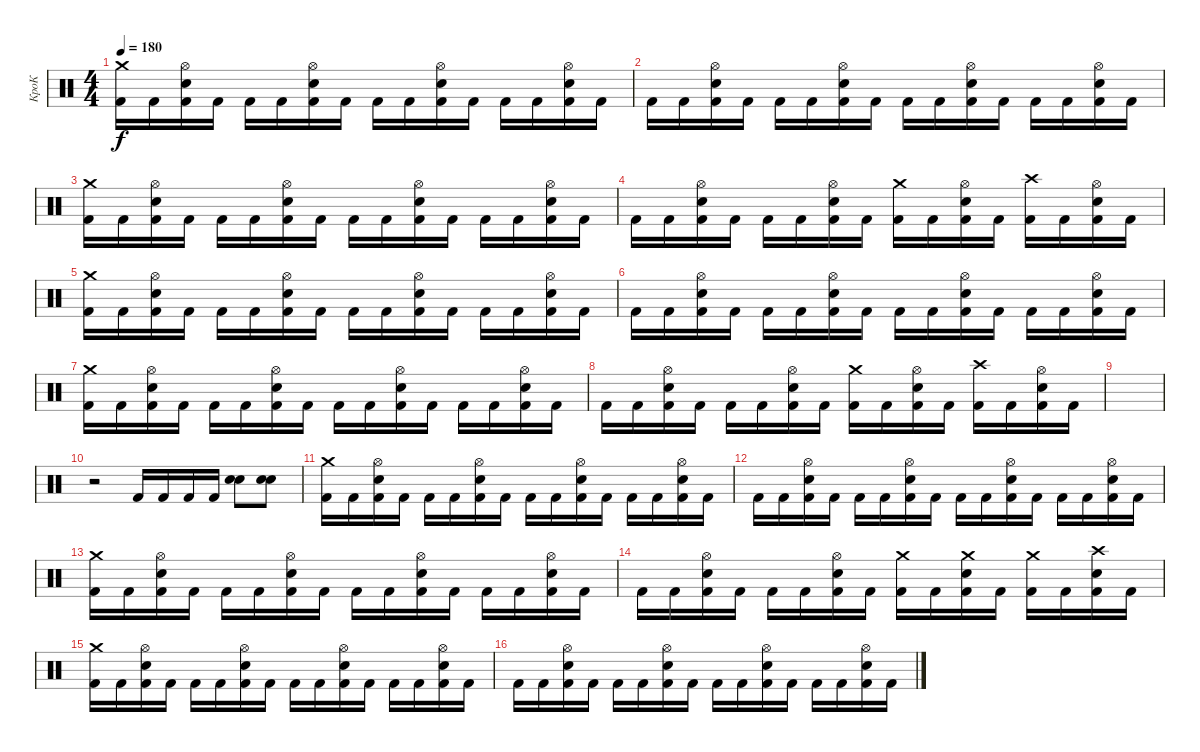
\track ("КроК" "КроК") {instrument percussion}
\staff {score}
\articulation defaults
\ts (4 4)
\tempo 180
\clef neutral
\ks c
("Kick (hit) 2" "Crash medium (hit)").16{dy f} "Kick (hit) 2".16 ("Kick (hit) 2" "Electric Snare (hit)" "Hi-Hat (open)").16 "Kick (hit) 2".16 "Kick (hit) 2".16 "Kick (hit) 2".16 ("Kick (hit) 2" "Electric Snare (hit)" "Hi-Hat (open)").16 "Kick (hit) 2".16 "Kick (hit) 2".16 "Kick (hit) 2".16 ("Kick (hit) 2" "Electric Snare (hit)" "Hi-Hat (open)").16 "Kick (hit) 2".16 "Kick (hit) 2".16 "Kick (hit) 2".16 ("Kick (hit) 2" "Electric Snare (hit)" "Hi-Hat (open)").16 "Kick (hit) 2".16 |
"Kick (hit) 2".16 "Kick (hit) 2".16 ("Kick (hit) 2" "Electric Snare (hit)" "Hi-Hat (open)").16 "Kick (hit) 2".16 "Kick (hit) 2".16 "Kick (hit) 2".16 ("Kick (hit) 2" "Electric Snare (hit)" "Hi-Hat (open)").16 "Kick (hit) 2".16 "Kick (hit) 2".16 "Kick (hit) 2".16 ("Kick (hit) 2" "Electric Snare (hit)" "Hi-Hat (open)").16 "Kick (hit) 2".16 "Kick (hit) 2".16 "Kick (hit) 2".16 ("Kick (hit) 2" "Electric Snare (hit)" "Hi-Hat (open)").16 "Kick (hit) 2".16 |
("Kick (hit) 2" "Crash medium (hit)").16 "Kick (hit) 2".16 ("Kick (hit) 2" "Electric Snare (hit)" "Hi-Hat (open)").16 "Kick (hit) 2".16 "Kick (hit) 2".16 "Kick (hit) 2".16 ("Kick (hit) 2" "Electric Snare (hit)" "Hi-Hat (open)").16 "Kick (hit) 2".16 "Kick (hit) 2".16 "Kick (hit) 2".16 ("Kick (hit) 2" "Electric Snare (hit)" "Hi-Hat (open)").16 "Kick (hit) 2".16 "Kick (hit) 2".16 "Kick (hit) 2".16 ("Kick (hit) 2" "Electric Snare (hit)" "Hi-Hat (open)").16 "Kick (hit) 2".16 |
"Kick (hit) 2".16 "Kick (hit) 2".16 ("Kick (hit) 2" "Electric Snare (hit)" "Hi-Hat (open)").16 "Kick (hit) 2".16 "Kick (hit) 2".16 "Kick (hit) 2".16 ("Kick (hit) 2" "Electric Snare (hit)" "Hi-Hat (open)").16 "Kick (hit) 2".16 ("Kick (hit) 2" "Crash medium (hit)").16 "Kick (hit) 2".16 ("Kick (hit) 2" "Electric Snare (hit)" "Hi-Hat (open)").16 "Kick (hit) 2".16 ("Kick (hit) 2" "Crash high (hit)").16 "Kick (hit) 2".16 ("Kick (hit) 2" "Electric Snare (hit)" "Hi-Hat (open)").16 "Kick (hit) 2".16 |
("Kick (hit) 2" "Crash medium (hit)").16 "Kick (hit) 2".16 ("Kick (hit) 2" "Electric Snare (hit)" "Hi-Hat (open)").16 "Kick (hit) 2".16 "Kick (hit) 2".16 "Kick (hit) 2".16 ("Kick (hit) 2" "Electric Snare (hit)" "Hi-Hat (open)").16 "Kick (hit) 2".16 "Kick (hit) 2".16 "Kick (hit) 2".16 ("Kick (hit) 2" "Electric Snare (hit)" "Hi-Hat (open)").16 "Kick (hit) 2".16 "Kick (hit) 2".16 "Kick (hit) 2".16 ("Kick (hit) 2" "Electric Snare (hit)" "Hi-Hat (open)").16 "Kick (hit) 2".16 |
"Kick (hit) 2".16 "Kick (hit) 2".16 ("Kick (hit) 2" "Electric Snare (hit)" "Hi-Hat (open)").16 "Kick (hit) 2".16 "Kick (hit) 2".16 "Kick (hit) 2".16 ("Kick (hit) 2" "Electric Snare (hit)" "Hi-Hat (open)").16 "Kick (hit) 2".16 "Kick (hit) 2".16 "Kick (hit) 2".16 ("Kick (hit) 2" "Electric Snare (hit)" "Hi-Hat (open)").16 "Kick (hit) 2".16 "Kick (hit) 2".16 "Kick (hit) 2".16 ("Kick (hit) 2" "Electric Snare (hit)" "Hi-Hat (open)").16 "Kick (hit) 2".16 |
("Kick (hit) 2" "Crash medium (hit)").16 "Kick (hit) 2".16 ("Kick (hit) 2" "Electric Snare (hit)" "Hi-Hat (open)").16 "Kick (hit) 2".16 "Kick (hit) 2".16 "Kick (hit) 2".16 ("Kick (hit) 2" "Electric Snare (hit)" "Hi-Hat (open)").16 "Kick (hit) 2".16 "Kick (hit) 2".16 "Kick (hit) 2".16 ("Kick (hit) 2" "Electric Snare (hit)" "Hi-Hat (open)").16 "Kick (hit) 2".16 "Kick (hit) 2".16 "Kick (hit) 2".16 ("Kick (hit) 2" "Electric Snare (hit)" "Hi-Hat (open)").16 "Kick (hit) 2".16 |
"Kick (hit) 2".16 "Kick (hit) 2".16 ("Kick (hit) 2" "Electric Snare (hit)" "Hi-Hat (open)").16 "Kick (hit) 2".16 "Kick (hit) 2".16 "Kick (hit) 2".16 ("Kick (hit) 2" "Electric Snare (hit)" "Hi-Hat (open)").16 "Kick (hit) 2".16 ("Kick (hit) 2" "Crash medium (hit)").16 "Kick (hit) 2".16 ("Kick (hit) 2" "Electric Snare (hit)" "Hi-Hat (open)").16 "Kick (hit) 2".16 ("Kick (hit) 2" "Crash high (hit)").16 "Kick (hit) 2".16 ("Kick (hit) 2" "Electric Snare (hit)" "Hi-Hat (open)").16 "Kick (hit) 2".16 |
|
r.2 "Kick (hit) 2".16 "Kick (hit) 2".16 "Kick (hit) 2".16 "Kick (hit) 2".16 ("Electric Snare (hit)" "Electric Snare (hit)").8 ("Electric Snare (hit)" "Electric Snare (hit)").8 |
("Kick (hit) 2" "Crash medium (hit)").16 "Kick (hit) 2".16 ("Kick (hit) 2" "Electric Snare (hit)" "Hi-Hat (open)").16 "Kick (hit) 2".16 "Kick (hit) 2".16 "Kick (hit) 2".16 ("Kick (hit) 2" "Electric Snare (hit)" "Hi-Hat (open)").16 "Kick (hit) 2".16 "Kick (hit) 2".16 "Kick (hit) 2".16 ("Kick (hit) 2" "Electric Snare (hit)" "Hi-Hat (open)").16 "Kick (hit) 2".16 "Kick (hit) 2".16 "Kick (hit) 2".16 ("Kick (hit) 2" "Electric Snare (hit)" "Hi-Hat (open)").16 "Kick (hit) 2".16 |
"Kick (hit) 2".16 "Kick (hit) 2".16 ("Kick (hit) 2" "Electric Snare (hit)" "Hi-Hat (open)").16 "Kick (hit) 2".16 "Kick (hit) 2".16 "Kick (hit) 2".16 ("Kick (hit) 2" "Electric Snare (hit)" "Hi-Hat (open)").16 "Kick (hit) 2".16 "Kick (hit) 2".16 "Kick (hit) 2".16 ("Kick (hit) 2" "Electric Snare (hit)" "Hi-Hat (open)").16 "Kick (hit) 2".16 "Kick (hit) 2".16 "Kick (hit) 2".16 ("Kick (hit) 2" "Electric Snare (hit)" "Hi-Hat (open)").16 "Kick (hit) 2".16 |
("Kick (hit) 2" "Crash medium (hit)").16 "Kick (hit) 2".16 ("Kick (hit) 2" "Electric Snare (hit)" "Hi-Hat (open)").16 "Kick (hit) 2".16 "Kick (hit) 2".16 "Kick (hit) 2".16 ("Kick (hit) 2" "Electric Snare (hit)" "Hi-Hat (open)").16 "Kick (hit) 2".16 "Kick (hit) 2".16 "Kick (hit) 2".16 ("Kick (hit) 2" "Electric Snare (hit)" "Hi-Hat (open)").16 "Kick (hit) 2".16 "Kick (hit) 2".16 "Kick (hit) 2".16 ("Kick (hit) 2" "Electric Snare (hit)" "Hi-Hat (open)").16 "Kick (hit) 2".16 |
"Kick (hit) 2".16 "Kick (hit) 2".16 ("Kick (hit) 2" "Electric Snare (hit)" "Hi-Hat (open)").16 "Kick (hit) 2".16 "Kick (hit) 2".16 "Kick (hit) 2".16 ("Kick (hit) 2" "Electric Snare (hit)" "Hi-Hat (open)").16 "Kick (hit) 2".16 ("Kick (hit) 2" "Crash medium (hit)").16 "Kick (hit) 2".16 ("Kick (hit) 2" "Electric Snare (hit)" "Crash medium (hit)").16 "Kick (hit) 2".16 ("Kick (hit) 2" "Crash medium (hit)").16 "Kick (hit) 2".16 ("Kick (hit) 2" "Electric Snare (hit)" "Crash high (hit)").16 "Kick (hit) 2".16 |
("Kick (hit) 2" "Crash medium (hit)").16 "Kick (hit) 2".16 ("Kick (hit) 2" "Electric Snare (hit)" "Hi-Hat (open)").16 "Kick (hit) 2".16 "Kick (hit) 2".16 "Kick (hit) 2".16 ("Kick (hit) 2" "Electric Snare (hit)" "Hi-Hat (open)").16 "Kick (hit) 2".16 "Kick (hit) 2".16 "Kick (hit) 2".16 ("Kick (hit) 2" "Electric Snare (hit)" "Hi-Hat (open)").16 "Kick (hit) 2".16 "Kick (hit) 2".16 "Kick (hit) 2".16 ("Kick (hit) 2" "Electric Snare (hit)" "Hi-Hat (open)").16 "Kick (hit) 2".16 |
"Kick (hit) 2".16 "Kick (hit) 2".16 ("Kick (hit) 2" "Electric Snare (hit)" "Hi-Hat (open)").16 "Kick (hit) 2".16 "Kick (hit) 2".16 "Kick (hit) 2".16 ("Kick (hit) 2" "Electric Snare (hit)" "Hi-Hat (open)").16 "Kick (hit) 2".16 "Kick (hit) 2".16 "Kick (hit) 2".16 ("Kick (hit) 2" "Electric Snare (hit)" "Hi-Hat (open)").16 "Kick (hit) 2".16 "Kick (hit) 2".16 "Kick (hit) 2".16 ("Kick (hit) 2" "Electric Snare (hit)" "Hi-Hat (open)").16 "Kick (hit) 2".16
